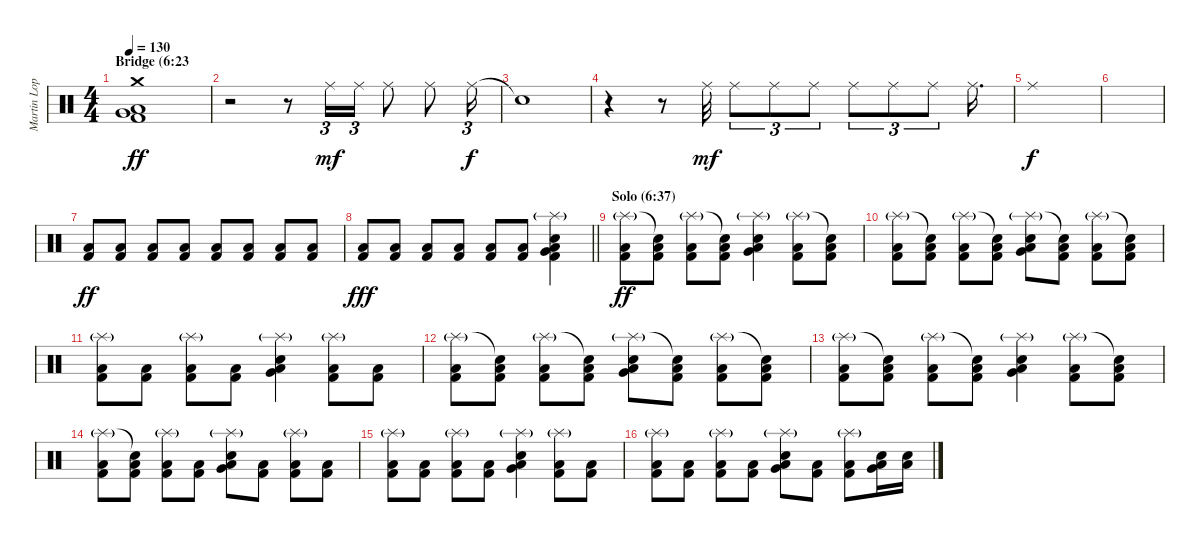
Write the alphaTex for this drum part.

\track ("Martin Lopez" "Martin Lop") {instrument percussion}
\staff {score}
\articulation defaults
\ts (4 4)
\section ("" "Bridge (6:23")
\tempo 130
\clef neutral
\ks c
("Crash medium (hit)" "Very Low Tom (hit)" "Kick (hit) 2" "Low Floor Tom (hit)").1{dy ff} |
r.2 r.8 "Ride (middle)".16{tu (3 2) dy mf} "Ride (middle)".16{tu (3 2)} "Ride (middle)".8 "Ride (middle)".8 "Ride (middle)".16{tu (3 2) dy f} |
"Snare (hit)"{t}.1 |
r.4 r.8 "Ride (middle)".32{dy mf} "Ride (middle)".8{tu (3 2)} "Ride (middle)".8{tu (3 2)} "Ride (middle)".8{tu (3 2)} "Ride (middle)".8{tu (3 2)} "Ride (middle)".8{tu (3 2)} "Ride (middle)".8{tu (3 2)} "Ride (middle)".16{d} |
"Ride (middle)".1{dy f} |
|
("Kick (hit) 2" "Low Floor Tom (hit)").8{dy ff} ("Kick (hit) 2" "Low Floor Tom (hit)").8 ("Kick (hit) 2" "Low Floor Tom (hit)").8 ("Kick (hit) 2" "Low Floor Tom (hit)").8 ("Kick (hit) 2" "Low Floor Tom (hit)").8 ("Kick (hit) 2" "Low Floor Tom (hit)").8 ("Kick (hit) 2" "Low Floor Tom (hit)").8 ("Kick (hit) 2" "Low Floor Tom (hit)").8 |
\barLineRight lightlight
("Kick (hit) 2" "Low Floor Tom (hit)").8{dy fff} ("Kick (hit) 2" "Low Floor Tom (hit)").8 ("Kick (hit) 2" "Low Floor Tom (hit)").8 ("Kick (hit) 2" "Low Floor Tom (hit)").8 ("Kick (hit) 2" "Low Floor Tom (hit)").8 ("Kick (hit) 2" "Low Floor Tom (hit)").8 ("Splash (hit)"{g} "Very Low Tom (hit)" "Snare (hit) 2" "Kick (hit) 2" "Low Floor Tom (hit)").4 |
\section ("" "Solo (6:37)")
("Splash (hit)"{g} "Kick (hit) 2" "Low Floor Tom (hit)").8{dy ff} ("Snare (hit)"{t} "Kick (hit) 2" "Low Floor Tom (hit)").8 ("Splash (hit)"{g} "Kick (hit) 2" "Low Floor Tom (hit)").8 ("Snare (hit)"{t} "Kick (hit) 2" "Low Floor Tom (hit)").8 ("Splash (hit)"{g} "Very Low Tom (hit)" "Snare (hit) 2" "Low Floor Tom (hit)").4 ("Splash (hit)"{g} "Kick (hit) 2" "Low Floor Tom (hit)").8 ("Snare (hit)"{t} "Kick (hit) 2" "Low Floor Tom (hit)").8 |
("Splash (hit)"{g} "Kick (hit) 2" "Low Floor Tom (hit)").8 ("Snare (hit)"{t} "Kick (hit) 2" "Low Floor Tom (hit)").8 ("Splash (hit)"{g} "Kick (hit) 2" "Low Floor Tom (hit)").8 ("Snare (hit)"{t} "Kick (hit) 2" "Low Floor Tom (hit)").8 ("Splash (hit)"{g} "Very Low Tom (hit)" "Snare (hit) 2" "Low Floor Tom (hit)").8 ("Snare (hit)"{t} "Kick (hit) 2" "Low Floor Tom (hit)").8 ("Splash (hit)"{g} "Kick (hit) 2" "Low Floor Tom (hit)").8 ("Snare (hit)"{t} "Kick (hit) 2" "Low Floor Tom (hit)").8 |
("Splash (hit)"{g} "Kick (hit) 2" "Low Floor Tom (hit)").8 ("Kick (hit) 2" "Low Floor Tom (hit)").8 ("Splash (hit)"{g} "Kick (hit) 2" "Low Floor Tom (hit)").8 ("Kick (hit) 2" "Low Floor Tom (hit)").8 ("Splash (hit)"{g} "Very Low Tom (hit)" "Snare (hit) 2" "Low Floor Tom (hit)").4 ("Splash (hit)"{g} "Kick (hit) 2" "Low Floor Tom (hit)").8 ("Kick (hit) 2" "Low Floor Tom (hit)").8 |
("Splash (hit)"{g} "Kick (hit) 2" "Low Floor Tom (hit)").8 ("Snare (hit)"{t} "Kick (hit) 2" "Low Floor Tom (hit)").8 ("Splash (hit)"{g} "Kick (hit) 2" "Low Floor Tom (hit)").8 ("Snare (hit)"{t} "Kick (hit) 2" "Low Floor Tom (hit)").8 ("Splash (hit)"{g} "Very Low Tom (hit)" "Snare (hit) 2" "Low Floor Tom (hit)").8 ("Snare (hit)"{t} "Kick (hit) 2" "Low Floor Tom (hit)").8 ("Splash (hit)"{g} "Kick (hit) 2" "Low Floor Tom (hit)").8 ("Snare (hit)"{t} "Kick (hit) 2" "Low Floor Tom (hit)").8 |
("Splash (hit)"{g} "Kick (hit) 2" "Low Floor Tom (hit)").8 ("Snare (hit)"{t} "Kick (hit) 2" "Low Floor Tom (hit)").8 ("Splash (hit)"{g} "Kick (hit) 2" "Low Floor Tom (hit)").8 ("Snare (hit)"{t} "Kick (hit) 2" "Low Floor Tom (hit)").8 ("Splash (hit)"{g} "Very Low Tom (hit)" "Snare (hit) 2" "Low Floor Tom (hit)").4 ("Splash (hit)"{g} "Kick (hit) 2" "Low Floor Tom (hit)").8 ("Snare (hit)"{t} "Kick (hit) 2" "Low Floor Tom (hit)").8 |
("Splash (hit)"{g} "Kick (hit) 2" "Low Floor Tom (hit)").8 ("Snare (hit)"{t} "Kick (hit) 2" "Low Floor Tom (hit)").8 ("Splash (hit)"{g} "Kick (hit) 2" "Low Floor Tom (hit)").8 ("Kick (hit) 2" "Low Floor Tom (hit)").8 ("Splash (hit)"{g} "Very Low Tom (hit)" "Snare (hit) 2" "Low Floor Tom (hit)").8 ("Kick (hit) 2" "Low Floor Tom (hit)").8 ("Splash (hit)"{g} "Kick (hit) 2" "Low Floor Tom (hit)").8 ("Kick (hit) 2" "Low Floor Tom (hit)").8 |
("Splash (hit)"{g} "Kick (hit) 2" "Low Floor Tom (hit)").8 ("Kick (hit) 2" "Low Floor Tom (hit)").8 ("Splash (hit)"{g} "Kick (hit) 2" "Low Floor Tom (hit)").8 ("Kick (hit) 2" "Low Floor Tom (hit)").8 ("Splash (hit)"{g} "Very Low Tom (hit)" "Snare (hit) 2" "Low Floor Tom (hit)").4 ("Splash (hit)"{g} "Kick (hit) 2" "Low Floor Tom (hit)").8 ("Kick (hit) 2" "Low Floor Tom (hit)").8 |
("Splash (hit)"{g} "Kick (hit) 2" "Low Floor Tom (hit)").8 ("Kick (hit) 2" "Low Floor Tom (hit)").8 ("Splash (hit)"{g} "Kick (hit) 2" "Low Floor Tom (hit)").8 ("Kick (hit) 2" "Low Floor Tom (hit)").8 ("Splash (hit)"{g} "Very Low Tom (hit)" "Snare (hit) 2" "Low Floor Tom (hit)").8 ("Kick (hit) 2" "Low Floor Tom (hit)").8 ("Splash (hit)"{g} "Kick (hit) 2" "Low Floor Tom (hit)").8 ("Very Low Tom (hit)" "Snare (hit) 2" "Low Floor Tom (hit)").16 ("Snare (hit) 2" "Low Floor Tom (hit)").16
